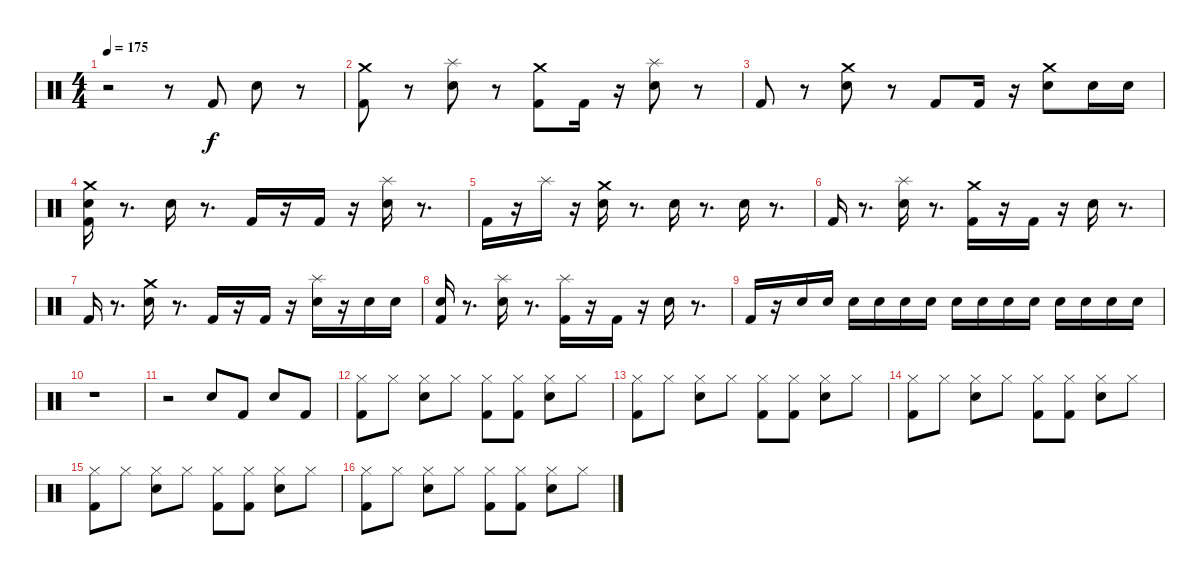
\track "" {instrument percussion}
\staff {score}
\articulation defaults
\ts (4 4)
\tempo 175
\clef neutral
\ks c
r.2{dy f} r.8 "Kick (hit) 2".8 "Electric Snare (hit)".8 r.8 |
("Crash medium (hit)" "Kick (hit) 2").8 r.8 ("Splash (hit)" "Electric Snare (hit)").8 r.8 ("Crash medium (hit)" "Kick (hit) 2").8 "Kick (hit) 2".16 r.16 ("Splash (hit)" "Electric Snare (hit)").8 r.8 |
"Kick (hit) 2".8 r.8 ("Crash medium (hit)" "Electric Snare (hit)").8 r.8 "Kick (hit) 2".8 "Kick (hit) 2".16 r.16 ("Crash medium (hit)" "Electric Snare (hit)").8 "Electric Snare (hit)".16 "Electric Snare (hit)".16 |
("Crash medium (hit)" "Kick (hit) 2" "Electric Snare (hit)").16 r.8{d} "Electric Snare (hit)".16 r.8{d} "Kick (hit) 2".16 r.16 "Kick (hit) 2".16 r.16 ("Splash (hit)" "Electric Snare (hit)").16 r.8{d} |
"Kick (hit) 2".16 r.16 "Splash (hit)".16 r.16 ("Crash medium (hit)" "Electric Snare (hit)").16 r.8{d} "Electric Snare (hit)".16 r.8{d} "Electric Snare (hit)".16 r.8{d} |
"Kick (hit) 2".16 r.8{d} ("Splash (hit)" "Electric Snare (hit)").16 r.8{d} ("Crash medium (hit)" "Kick (hit) 2").16 r.16 "Kick (hit) 2".16 r.16 "Electric Snare (hit)".16 r.8{d} |
"Kick (hit) 2".16 r.8{d} ("Crash medium (hit)" "Electric Snare (hit)").16 r.8{d} "Kick (hit) 2".16 r.16 "Kick (hit) 2".16 r.16 ("Splash (hit)" "Electric Snare (hit)").16 r.16 "Electric Snare (hit)".16 "Electric Snare (hit)".16 |
("Kick (hit) 2" "Electric Snare (hit)").16 r.8{d} ("Splash (hit)" "Electric Snare (hit)").16 r.8{d} ("Splash (hit)" "Kick (hit) 2").16 r.16 "Kick (hit) 2".16 r.16 "Electric Snare (hit)".16 r.8{d} |
"Kick (hit) 2".16 r.16 "Electric Snare (hit)".16 "Electric Snare (hit)".16 "Electric Snare (hit)".16 "Electric Snare (hit)".16 "Electric Snare (hit)".16 "Electric Snare (hit)".16 "Electric Snare (hit)".16 "Electric Snare (hit)".16 "Electric Snare (hit)".16 "Electric Snare (hit)".16 "Electric Snare (hit)".16 "Electric Snare (hit)".16 "Electric Snare (hit)".16 "Electric Snare (hit)".16 |
r.1 |
r.2 "Electric Snare (hit)".8 "Kick (hit) 2".8 "Electric Snare (hit)".8 "Kick (hit) 2".8 |
("Hi-Hat (closed)" "Kick (hit) 2").8 "Hi-Hat (closed)".8 ("Hi-Hat (closed)" "Electric Snare (hit)").8 "Hi-Hat (closed)".8 ("Hi-Hat (closed)" "Kick (hit) 2").8 ("Hi-Hat (closed)" "Kick (hit) 2").8 ("Hi-Hat (closed)" "Electric Snare (hit)").8 "Hi-Hat (closed)".8 |
("Hi-Hat (closed)" "Kick (hit) 2").8 "Hi-Hat (closed)".8 ("Hi-Hat (closed)" "Electric Snare (hit)").8 "Hi-Hat (closed)".8 ("Hi-Hat (closed)" "Kick (hit) 2").8 ("Hi-Hat (closed)" "Kick (hit) 2").8 ("Hi-Hat (closed)" "Electric Snare (hit)").8 "Hi-Hat (closed)".8 |
("Hi-Hat (closed)" "Kick (hit) 2").8 "Hi-Hat (closed)".8 ("Hi-Hat (closed)" "Electric Snare (hit)").8 "Hi-Hat (closed)".8 ("Hi-Hat (closed)" "Kick (hit) 2").8 ("Hi-Hat (closed)" "Kick (hit) 2").8 ("Hi-Hat (closed)" "Electric Snare (hit)").8 "Hi-Hat (closed)".8 |
("Hi-Hat (closed)" "Kick (hit) 2").8 "Hi-Hat (closed)".8 ("Hi-Hat (closed)" "Electric Snare (hit)").8 "Hi-Hat (closed)".8 ("Hi-Hat (closed)" "Kick (hit) 2").8 ("Hi-Hat (closed)" "Kick (hit) 2").8 ("Hi-Hat (closed)" "Electric Snare (hit)").8 "Hi-Hat (closed)".8 |
("Hi-Hat (closed)" "Kick (hit) 2").8 "Hi-Hat (closed)".8 ("Hi-Hat (closed)" "Electric Snare (hit)").8 "Hi-Hat (closed)".8 ("Hi-Hat (closed)" "Kick (hit) 2").8 ("Hi-Hat (closed)" "Kick (hit) 2").8 ("Hi-Hat (closed)" "Electric Snare (hit)").8 "Hi-Hat (closed)".8
